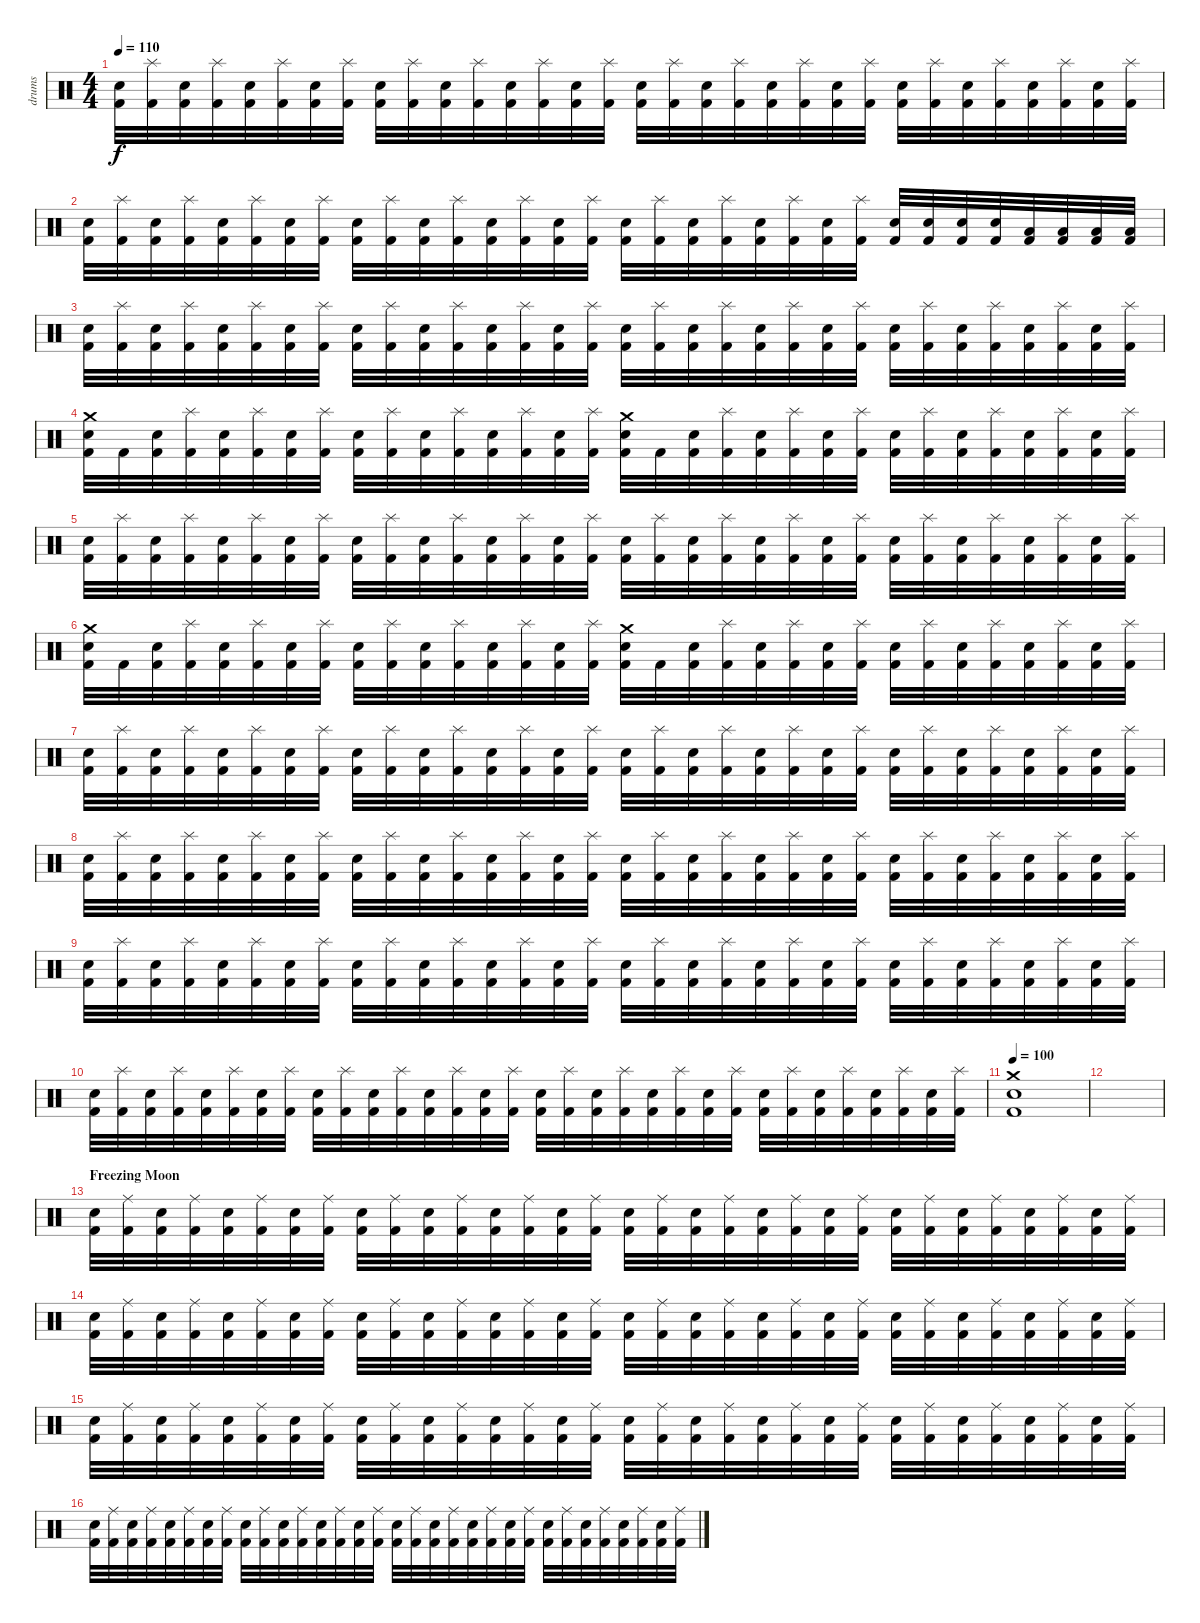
\track ("drums" "drums") {instrument percussion}
\staff {score}
\articulation defaults
\ts (4 4)
\tempo 110
\clef neutral
\ks c
("Electric Snare (hit)" "Kick (hit) 2").32{dy f} ("Splash (hit)" "Kick (hit) 2").32 ("Electric Snare (hit)" "Kick (hit) 2").32 ("Splash (hit)" "Kick (hit) 2").32 ("Electric Snare (hit)" "Kick (hit) 2").32 ("Splash (hit)" "Kick (hit) 2").32 ("Electric Snare (hit)" "Kick (hit) 2").32 ("Splash (hit)" "Kick (hit) 2").32 ("Electric Snare (hit)" "Kick (hit) 2").32 ("Splash (hit)" "Kick (hit) 2").32 ("Electric Snare (hit)" "Kick (hit) 2").32 ("Splash (hit)" "Kick (hit) 2").32 ("Electric Snare (hit)" "Kick (hit) 2").32 ("Splash (hit)" "Kick (hit) 2").32 ("Electric Snare (hit)" "Kick (hit) 2").32 ("Splash (hit)" "Kick (hit) 2").32 ("Electric Snare (hit)" "Kick (hit) 2").32 ("Splash (hit)" "Kick (hit) 2").32 ("Electric Snare (hit)" "Kick (hit) 2").32 ("Splash (hit)" "Kick (hit) 2").32 ("Electric Snare (hit)" "Kick (hit) 2").32 ("Splash (hit)" "Kick (hit) 2").32 ("Electric Snare (hit)" "Kick (hit) 2").32 ("Splash (hit)" "Kick (hit) 2").32 ("Electric Snare (hit)" "Kick (hit) 2").32 ("Splash (hit)" "Kick (hit) 2").32 ("Electric Snare (hit)" "Kick (hit) 2").32 ("Splash (hit)" "Kick (hit) 2").32 ("Electric Snare (hit)" "Kick (hit) 2").32 ("Splash (hit)" "Kick (hit) 2").32 ("Electric Snare (hit)" "Kick (hit) 2").32 ("Splash (hit)" "Kick (hit) 2").32 |
("Electric Snare (hit)" "Kick (hit) 2").32 ("Splash (hit)" "Kick (hit) 2").32 ("Electric Snare (hit)" "Kick (hit) 2").32 ("Splash (hit)" "Kick (hit) 2").32 ("Electric Snare (hit)" "Kick (hit) 2").32 ("Splash (hit)" "Kick (hit) 2").32 ("Electric Snare (hit)" "Kick (hit) 2").32 ("Splash (hit)" "Kick (hit) 2").32 ("Electric Snare (hit)" "Kick (hit) 2").32 ("Splash (hit)" "Kick (hit) 2").32 ("Electric Snare (hit)" "Kick (hit) 2").32 ("Splash (hit)" "Kick (hit) 2").32 ("Electric Snare (hit)" "Kick (hit) 2").32 ("Splash (hit)" "Kick (hit) 2").32 ("Electric Snare (hit)" "Kick (hit) 2").32 ("Splash (hit)" "Kick (hit) 2").32 ("Electric Snare (hit)" "Kick (hit) 2").32 ("Splash (hit)" "Kick (hit) 2").32 ("Electric Snare (hit)" "Kick (hit) 2").32 ("Splash (hit)" "Kick (hit) 2").32 ("Electric Snare (hit)" "Kick (hit) 2").32 ("Splash (hit)" "Kick (hit) 2").32 ("Electric Snare (hit)" "Kick (hit) 2").32 ("Splash (hit)" "Kick (hit) 2").32 ("Electric Snare (hit)" "Kick (hit) 2").32 ("Electric Snare (hit)" "Kick (hit) 2").32 ("Electric Snare (hit)" "Kick (hit) 2").32 ("Electric Snare (hit)" "Kick (hit) 2").32 ("Low Tom (hit)" "Kick (hit) 2").32 ("Low Tom (hit)" "Kick (hit) 2").32 ("Low Tom (hit)" "Kick (hit) 2").32 ("Low Tom (hit)" "Kick (hit) 2").32 |
("Electric Snare (hit)" "Kick (hit) 2").32 ("Splash (hit)" "Kick (hit) 2").32 ("Electric Snare (hit)" "Kick (hit) 2").32 ("Splash (hit)" "Kick (hit) 2").32 ("Electric Snare (hit)" "Kick (hit) 2").32 ("Splash (hit)" "Kick (hit) 2").32 ("Electric Snare (hit)" "Kick (hit) 2").32 ("Splash (hit)" "Kick (hit) 2").32 ("Electric Snare (hit)" "Kick (hit) 2").32 ("Splash (hit)" "Kick (hit) 2").32 ("Electric Snare (hit)" "Kick (hit) 2").32 ("Splash (hit)" "Kick (hit) 2").32 ("Electric Snare (hit)" "Kick (hit) 2").32 ("Splash (hit)" "Kick (hit) 2").32 ("Electric Snare (hit)" "Kick (hit) 2").32 ("Splash (hit)" "Kick (hit) 2").32 ("Electric Snare (hit)" "Kick (hit) 2").32 ("Splash (hit)" "Kick (hit) 2").32 ("Electric Snare (hit)" "Kick (hit) 2").32 ("Splash (hit)" "Kick (hit) 2").32 ("Electric Snare (hit)" "Kick (hit) 2").32 ("Splash (hit)" "Kick (hit) 2").32 ("Electric Snare (hit)" "Kick (hit) 2").32 ("Splash (hit)" "Kick (hit) 2").32 ("Electric Snare (hit)" "Kick (hit) 2").32 ("Splash (hit)" "Kick (hit) 2").32 ("Electric Snare (hit)" "Kick (hit) 2").32 ("Splash (hit)" "Kick (hit) 2").32 ("Electric Snare (hit)" "Kick (hit) 2").32 ("Splash (hit)" "Kick (hit) 2").32 ("Electric Snare (hit)" "Kick (hit) 2").32 ("Splash (hit)" "Kick (hit) 2").32 |
("Crash medium (hit)" "Electric Snare (hit)" "Kick (hit) 2").32 "Kick (hit) 2".32 ("Electric Snare (hit)" "Kick (hit) 2").32 ("Splash (hit)" "Kick (hit) 2").32 ("Electric Snare (hit)" "Kick (hit) 2").32 ("Splash (hit)" "Kick (hit) 2").32 ("Electric Snare (hit)" "Kick (hit) 2").32 ("Splash (hit)" "Kick (hit) 2").32 ("Electric Snare (hit)" "Kick (hit) 2").32 ("Splash (hit)" "Kick (hit) 2").32 ("Electric Snare (hit)" "Kick (hit) 2").32 ("Splash (hit)" "Kick (hit) 2").32 ("Electric Snare (hit)" "Kick (hit) 2").32 ("Splash (hit)" "Kick (hit) 2").32 ("Electric Snare (hit)" "Kick (hit) 2").32 ("Splash (hit)" "Kick (hit) 2").32 ("Crash medium (hit)" "Electric Snare (hit)" "Kick (hit) 2").32 "Kick (hit) 2".32 ("Electric Snare (hit)" "Kick (hit) 2").32 ("Splash (hit)" "Kick (hit) 2").32 ("Electric Snare (hit)" "Kick (hit) 2").32 ("Splash (hit)" "Kick (hit) 2").32 ("Electric Snare (hit)" "Kick (hit) 2").32 ("Splash (hit)" "Kick (hit) 2").32 ("Electric Snare (hit)" "Kick (hit) 2").32 ("Splash (hit)" "Kick (hit) 2").32 ("Electric Snare (hit)" "Kick (hit) 2").32 ("Splash (hit)" "Kick (hit) 2").32 ("Electric Snare (hit)" "Kick (hit) 2").32 ("Splash (hit)" "Kick (hit) 2").32 ("Electric Snare (hit)" "Kick (hit) 2").32 ("Splash (hit)" "Kick (hit) 2").32 |
("Electric Snare (hit)" "Kick (hit) 2").32 ("Splash (hit)" "Kick (hit) 2").32 ("Electric Snare (hit)" "Kick (hit) 2").32 ("Splash (hit)" "Kick (hit) 2").32 ("Electric Snare (hit)" "Kick (hit) 2").32 ("Splash (hit)" "Kick (hit) 2").32 ("Electric Snare (hit)" "Kick (hit) 2").32 ("Splash (hit)" "Kick (hit) 2").32 ("Electric Snare (hit)" "Kick (hit) 2").32 ("Splash (hit)" "Kick (hit) 2").32 ("Electric Snare (hit)" "Kick (hit) 2").32 ("Splash (hit)" "Kick (hit) 2").32 ("Electric Snare (hit)" "Kick (hit) 2").32 ("Splash (hit)" "Kick (hit) 2").32 ("Electric Snare (hit)" "Kick (hit) 2").32 ("Splash (hit)" "Kick (hit) 2").32 ("Electric Snare (hit)" "Kick (hit) 2").32 ("Splash (hit)" "Kick (hit) 2").32 ("Electric Snare (hit)" "Kick (hit) 2").32 ("Splash (hit)" "Kick (hit) 2").32 ("Electric Snare (hit)" "Kick (hit) 2").32 ("Splash (hit)" "Kick (hit) 2").32 ("Electric Snare (hit)" "Kick (hit) 2").32 ("Splash (hit)" "Kick (hit) 2").32 ("Electric Snare (hit)" "Kick (hit) 2").32 ("Splash (hit)" "Kick (hit) 2").32 ("Electric Snare (hit)" "Kick (hit) 2").32 ("Splash (hit)" "Kick (hit) 2").32 ("Electric Snare (hit)" "Kick (hit) 2").32 ("Splash (hit)" "Kick (hit) 2").32 ("Electric Snare (hit)" "Kick (hit) 2").32 ("Splash (hit)" "Kick (hit) 2").32 |
("Crash medium (hit)" "Electric Snare (hit)" "Kick (hit) 2").32 "Kick (hit) 2".32 ("Electric Snare (hit)" "Kick (hit) 2").32 ("Splash (hit)" "Kick (hit) 2").32 ("Electric Snare (hit)" "Kick (hit) 2").32 ("Splash (hit)" "Kick (hit) 2").32 ("Electric Snare (hit)" "Kick (hit) 2").32 ("Splash (hit)" "Kick (hit) 2").32 ("Electric Snare (hit)" "Kick (hit) 2").32 ("Splash (hit)" "Kick (hit) 2").32 ("Electric Snare (hit)" "Kick (hit) 2").32 ("Splash (hit)" "Kick (hit) 2").32 ("Electric Snare (hit)" "Kick (hit) 2").32 ("Splash (hit)" "Kick (hit) 2").32 ("Electric Snare (hit)" "Kick (hit) 2").32 ("Splash (hit)" "Kick (hit) 2").32 ("Crash medium (hit)" "Electric Snare (hit)" "Kick (hit) 2").32 "Kick (hit) 2".32 ("Electric Snare (hit)" "Kick (hit) 2").32 ("Splash (hit)" "Kick (hit) 2").32 ("Electric Snare (hit)" "Kick (hit) 2").32 ("Splash (hit)" "Kick (hit) 2").32 ("Electric Snare (hit)" "Kick (hit) 2").32 ("Splash (hit)" "Kick (hit) 2").32 ("Electric Snare (hit)" "Kick (hit) 2").32 ("Splash (hit)" "Kick (hit) 2").32 ("Electric Snare (hit)" "Kick (hit) 2").32 ("Splash (hit)" "Kick (hit) 2").32 ("Electric Snare (hit)" "Kick (hit) 2").32 ("Splash (hit)" "Kick (hit) 2").32 ("Electric Snare (hit)" "Kick (hit) 2").32 ("Splash (hit)" "Kick (hit) 2").32 |
("Electric Snare (hit)" "Kick (hit) 2").32 ("Splash (hit)" "Kick (hit) 2").32 ("Electric Snare (hit)" "Kick (hit) 2").32 ("Splash (hit)" "Kick (hit) 2").32 ("Electric Snare (hit)" "Kick (hit) 2").32 ("Splash (hit)" "Kick (hit) 2").32 ("Electric Snare (hit)" "Kick (hit) 2").32 ("Splash (hit)" "Kick (hit) 2").32 ("Electric Snare (hit)" "Kick (hit) 2").32 ("Splash (hit)" "Kick (hit) 2").32 ("Electric Snare (hit)" "Kick (hit) 2").32 ("Splash (hit)" "Kick (hit) 2").32 ("Electric Snare (hit)" "Kick (hit) 2").32 ("Splash (hit)" "Kick (hit) 2").32 ("Electric Snare (hit)" "Kick (hit) 2").32 ("Splash (hit)" "Kick (hit) 2").32 ("Electric Snare (hit)" "Kick (hit) 2").32 ("Splash (hit)" "Kick (hit) 2").32 ("Electric Snare (hit)" "Kick (hit) 2").32 ("Splash (hit)" "Kick (hit) 2").32 ("Electric Snare (hit)" "Kick (hit) 2").32 ("Splash (hit)" "Kick (hit) 2").32 ("Electric Snare (hit)" "Kick (hit) 2").32 ("Splash (hit)" "Kick (hit) 2").32 ("Electric Snare (hit)" "Kick (hit) 2").32 ("Splash (hit)" "Kick (hit) 2").32 ("Electric Snare (hit)" "Kick (hit) 2").32 ("Splash (hit)" "Kick (hit) 2").32 ("Electric Snare (hit)" "Kick (hit) 2").32 ("Splash (hit)" "Kick (hit) 2").32 ("Electric Snare (hit)" "Kick (hit) 2").32 ("Splash (hit)" "Kick (hit) 2").32 |
("Electric Snare (hit)" "Kick (hit) 2").32 ("Splash (hit)" "Kick (hit) 2").32 ("Electric Snare (hit)" "Kick (hit) 2").32 ("Splash (hit)" "Kick (hit) 2").32 ("Electric Snare (hit)" "Kick (hit) 2").32 ("Splash (hit)" "Kick (hit) 2").32 ("Electric Snare (hit)" "Kick (hit) 2").32 ("Splash (hit)" "Kick (hit) 2").32 ("Electric Snare (hit)" "Kick (hit) 2").32 ("Splash (hit)" "Kick (hit) 2").32 ("Electric Snare (hit)" "Kick (hit) 2").32 ("Splash (hit)" "Kick (hit) 2").32 ("Electric Snare (hit)" "Kick (hit) 2").32 ("Splash (hit)" "Kick (hit) 2").32 ("Electric Snare (hit)" "Kick (hit) 2").32 ("Splash (hit)" "Kick (hit) 2").32 ("Electric Snare (hit)" "Kick (hit) 2").32 ("Splash (hit)" "Kick (hit) 2").32 ("Electric Snare (hit)" "Kick (hit) 2").32 ("Splash (hit)" "Kick (hit) 2").32 ("Electric Snare (hit)" "Kick (hit) 2").32 ("Splash (hit)" "Kick (hit) 2").32 ("Electric Snare (hit)" "Kick (hit) 2").32 ("Splash (hit)" "Kick (hit) 2").32 ("Electric Snare (hit)" "Kick (hit) 2").32 ("Splash (hit)" "Kick (hit) 2").32 ("Electric Snare (hit)" "Kick (hit) 2").32 ("Splash (hit)" "Kick (hit) 2").32 ("Electric Snare (hit)" "Kick (hit) 2").32 ("Splash (hit)" "Kick (hit) 2").32 ("Electric Snare (hit)" "Kick (hit) 2").32 ("Splash (hit)" "Kick (hit) 2").32 |
("Electric Snare (hit)" "Kick (hit) 2").32 ("Splash (hit)" "Kick (hit) 2").32 ("Electric Snare (hit)" "Kick (hit) 2").32 ("Splash (hit)" "Kick (hit) 2").32 ("Electric Snare (hit)" "Kick (hit) 2").32 ("Splash (hit)" "Kick (hit) 2").32 ("Electric Snare (hit)" "Kick (hit) 2").32 ("Splash (hit)" "Kick (hit) 2").32 ("Electric Snare (hit)" "Kick (hit) 2").32 ("Splash (hit)" "Kick (hit) 2").32 ("Electric Snare (hit)" "Kick (hit) 2").32 ("Splash (hit)" "Kick (hit) 2").32 ("Electric Snare (hit)" "Kick (hit) 2").32 ("Splash (hit)" "Kick (hit) 2").32 ("Electric Snare (hit)" "Kick (hit) 2").32 ("Splash (hit)" "Kick (hit) 2").32 ("Electric Snare (hit)" "Kick (hit) 2").32 ("Splash (hit)" "Kick (hit) 2").32 ("Electric Snare (hit)" "Kick (hit) 2").32 ("Splash (hit)" "Kick (hit) 2").32 ("Electric Snare (hit)" "Kick (hit) 2").32 ("Splash (hit)" "Kick (hit) 2").32 ("Electric Snare (hit)" "Kick (hit) 2").32 ("Splash (hit)" "Kick (hit) 2").32 ("Electric Snare (hit)" "Kick (hit) 2").32 ("Splash (hit)" "Kick (hit) 2").32 ("Electric Snare (hit)" "Kick (hit) 2").32 ("Splash (hit)" "Kick (hit) 2").32 ("Electric Snare (hit)" "Kick (hit) 2").32 ("Splash (hit)" "Kick (hit) 2").32 ("Electric Snare (hit)" "Kick (hit) 2").32 ("Splash (hit)" "Kick (hit) 2").32 |
("Electric Snare (hit)" "Kick (hit) 2").32 ("Splash (hit)" "Kick (hit) 2").32 ("Electric Snare (hit)" "Kick (hit) 2").32 ("Splash (hit)" "Kick (hit) 2").32 ("Electric Snare (hit)" "Kick (hit) 2").32 ("Splash (hit)" "Kick (hit) 2").32 ("Electric Snare (hit)" "Kick (hit) 2").32 ("Splash (hit)" "Kick (hit) 2").32 ("Electric Snare (hit)" "Kick (hit) 2").32 ("Splash (hit)" "Kick (hit) 2").32 ("Electric Snare (hit)" "Kick (hit) 2").32 ("Splash (hit)" "Kick (hit) 2").32 ("Electric Snare (hit)" "Kick (hit) 2").32 ("Splash (hit)" "Kick (hit) 2").32 ("Electric Snare (hit)" "Kick (hit) 2").32 ("Splash (hit)" "Kick (hit) 2").32 ("Electric Snare (hit)" "Kick (hit) 2").32 ("Splash (hit)" "Kick (hit) 2").32 ("Electric Snare (hit)" "Kick (hit) 2").32 ("Splash (hit)" "Kick (hit) 2").32 ("Electric Snare (hit)" "Kick (hit) 2").32 ("Splash (hit)" "Kick (hit) 2").32 ("Electric Snare (hit)" "Kick (hit) 2").32 ("Splash (hit)" "Kick (hit) 2").32 ("Electric Snare (hit)" "Kick (hit) 2").32 ("Splash (hit)" "Kick (hit) 2").32 ("Electric Snare (hit)" "Kick (hit) 2").32 ("Splash (hit)" "Kick (hit) 2").32 ("Electric Snare (hit)" "Kick (hit) 2").32 ("Splash (hit)" "Kick (hit) 2").32 ("Electric Snare (hit)" "Kick (hit) 2").32 ("Splash (hit)" "Kick (hit) 2").32 |
\tempo 100
("Crash medium (hit)" "Electric Snare (hit)" "Kick (hit) 2").1 |
|
\section ("" "Freezing Moon")
("Electric Snare (hit)" "Kick (hit) 2").32 ("Ride (middle)" "Kick (hit) 2").32 ("Electric Snare (hit)" "Kick (hit) 2").32 ("Ride (middle)" "Kick (hit) 2").32 ("Electric Snare (hit)" "Kick (hit) 2").32 ("Ride (middle)" "Kick (hit) 2").32 ("Electric Snare (hit)" "Kick (hit) 2").32 ("Ride (middle)" "Kick (hit) 2").32 ("Electric Snare (hit)" "Kick (hit) 2").32 ("Ride (middle)" "Kick (hit) 2").32 ("Electric Snare (hit)" "Kick (hit) 2").32 ("Ride (middle)" "Kick (hit) 2").32 ("Electric Snare (hit)" "Kick (hit) 2").32 ("Ride (middle)" "Kick (hit) 2").32 ("Electric Snare (hit)" "Kick (hit) 2").32 ("Ride (middle)" "Kick (hit) 2").32 ("Electric Snare (hit)" "Kick (hit) 2").32 ("Ride (middle)" "Kick (hit) 2").32 ("Electric Snare (hit)" "Kick (hit) 2").32 ("Ride (middle)" "Kick (hit) 2").32 ("Electric Snare (hit)" "Kick (hit) 2").32 ("Ride (middle)" "Kick (hit) 2").32 ("Electric Snare (hit)" "Kick (hit) 2").32 ("Ride (middle)" "Kick (hit) 2").32 ("Electric Snare (hit)" "Kick (hit) 2").32 ("Ride (middle)" "Kick (hit) 2").32 ("Electric Snare (hit)" "Kick (hit) 2").32 ("Ride (middle)" "Kick (hit) 2").32 ("Electric Snare (hit)" "Kick (hit) 2").32 ("Ride (middle)" "Kick (hit) 2").32 ("Electric Snare (hit)" "Kick (hit) 2").32 ("Ride (middle)" "Kick (hit) 2").32 |
("Electric Snare (hit)" "Kick (hit) 2").32 ("Ride (middle)" "Kick (hit) 2").32 ("Electric Snare (hit)" "Kick (hit) 2").32 ("Ride (middle)" "Kick (hit) 2").32 ("Electric Snare (hit)" "Kick (hit) 2").32 ("Ride (middle)" "Kick (hit) 2").32 ("Electric Snare (hit)" "Kick (hit) 2").32 ("Ride (middle)" "Kick (hit) 2").32 ("Electric Snare (hit)" "Kick (hit) 2").32 ("Ride (middle)" "Kick (hit) 2").32 ("Electric Snare (hit)" "Kick (hit) 2").32 ("Ride (middle)" "Kick (hit) 2").32 ("Electric Snare (hit)" "Kick (hit) 2").32 ("Ride (middle)" "Kick (hit) 2").32 ("Electric Snare (hit)" "Kick (hit) 2").32 ("Ride (middle)" "Kick (hit) 2").32 ("Electric Snare (hit)" "Kick (hit) 2").32 ("Ride (middle)" "Kick (hit) 2").32 ("Electric Snare (hit)" "Kick (hit) 2").32 ("Ride (middle)" "Kick (hit) 2").32 ("Electric Snare (hit)" "Kick (hit) 2").32 ("Ride (middle)" "Kick (hit) 2").32 ("Electric Snare (hit)" "Kick (hit) 2").32 ("Ride (middle)" "Kick (hit) 2").32 ("Electric Snare (hit)" "Kick (hit) 2").32 ("Ride (middle)" "Kick (hit) 2").32 ("Electric Snare (hit)" "Kick (hit) 2").32 ("Ride (middle)" "Kick (hit) 2").32 ("Electric Snare (hit)" "Kick (hit) 2").32 ("Ride (middle)" "Kick (hit) 2").32 ("Electric Snare (hit)" "Kick (hit) 2").32 ("Ride (middle)" "Kick (hit) 2").32 |
("Electric Snare (hit)" "Kick (hit) 2").32 ("Ride (middle)" "Kick (hit) 2").32 ("Electric Snare (hit)" "Kick (hit) 2").32 ("Ride (middle)" "Kick (hit) 2").32 ("Electric Snare (hit)" "Kick (hit) 2").32 ("Ride (middle)" "Kick (hit) 2").32 ("Electric Snare (hit)" "Kick (hit) 2").32 ("Ride (middle)" "Kick (hit) 2").32 ("Electric Snare (hit)" "Kick (hit) 2").32 ("Ride (middle)" "Kick (hit) 2").32 ("Electric Snare (hit)" "Kick (hit) 2").32 ("Ride (middle)" "Kick (hit) 2").32 ("Electric Snare (hit)" "Kick (hit) 2").32 ("Ride (middle)" "Kick (hit) 2").32 ("Electric Snare (hit)" "Kick (hit) 2").32 ("Ride (middle)" "Kick (hit) 2").32 ("Electric Snare (hit)" "Kick (hit) 2").32 ("Ride (middle)" "Kick (hit) 2").32 ("Electric Snare (hit)" "Kick (hit) 2").32 ("Ride (middle)" "Kick (hit) 2").32 ("Electric Snare (hit)" "Kick (hit) 2").32 ("Ride (middle)" "Kick (hit) 2").32 ("Electric Snare (hit)" "Kick (hit) 2").32 ("Ride (middle)" "Kick (hit) 2").32 ("Electric Snare (hit)" "Kick (hit) 2").32 ("Ride (middle)" "Kick (hit) 2").32 ("Electric Snare (hit)" "Kick (hit) 2").32 ("Ride (middle)" "Kick (hit) 2").32 ("Electric Snare (hit)" "Kick (hit) 2").32 ("Ride (middle)" "Kick (hit) 2").32 ("Electric Snare (hit)" "Kick (hit) 2").32 ("Ride (middle)" "Kick (hit) 2").32 |
("Electric Snare (hit)" "Kick (hit) 2").32 ("Ride (middle)" "Kick (hit) 2").32 ("Electric Snare (hit)" "Kick (hit) 2").32 ("Ride (middle)" "Kick (hit) 2").32 ("Electric Snare (hit)" "Kick (hit) 2").32 ("Ride (middle)" "Kick (hit) 2").32 ("Electric Snare (hit)" "Kick (hit) 2").32 ("Ride (middle)" "Kick (hit) 2").32 ("Electric Snare (hit)" "Kick (hit) 2").32 ("Ride (middle)" "Kick (hit) 2").32 ("Electric Snare (hit)" "Kick (hit) 2").32 ("Ride (middle)" "Kick (hit) 2").32 ("Electric Snare (hit)" "Kick (hit) 2").32 ("Ride (middle)" "Kick (hit) 2").32 ("Electric Snare (hit)" "Kick (hit) 2").32 ("Ride (middle)" "Kick (hit) 2").32 ("Electric Snare (hit)" "Kick (hit) 2").32 ("Ride (middle)" "Kick (hit) 2").32 ("Electric Snare (hit)" "Kick (hit) 2").32 ("Ride (middle)" "Kick (hit) 2").32 ("Electric Snare (hit)" "Kick (hit) 2").32 ("Ride (middle)" "Kick (hit) 2").32 ("Electric Snare (hit)" "Kick (hit) 2").32 ("Ride (middle)" "Kick (hit) 2").32 ("Electric Snare (hit)" "Kick (hit) 2").32 ("Ride (middle)" "Kick (hit) 2").32 ("Electric Snare (hit)" "Kick (hit) 2").32 ("Ride (middle)" "Kick (hit) 2").32 ("Electric Snare (hit)" "Kick (hit) 2").32 ("Ride (middle)" "Kick (hit) 2").32 ("Electric Snare (hit)" "Kick (hit) 2").32 ("Ride (middle)" "Kick (hit) 2").32
